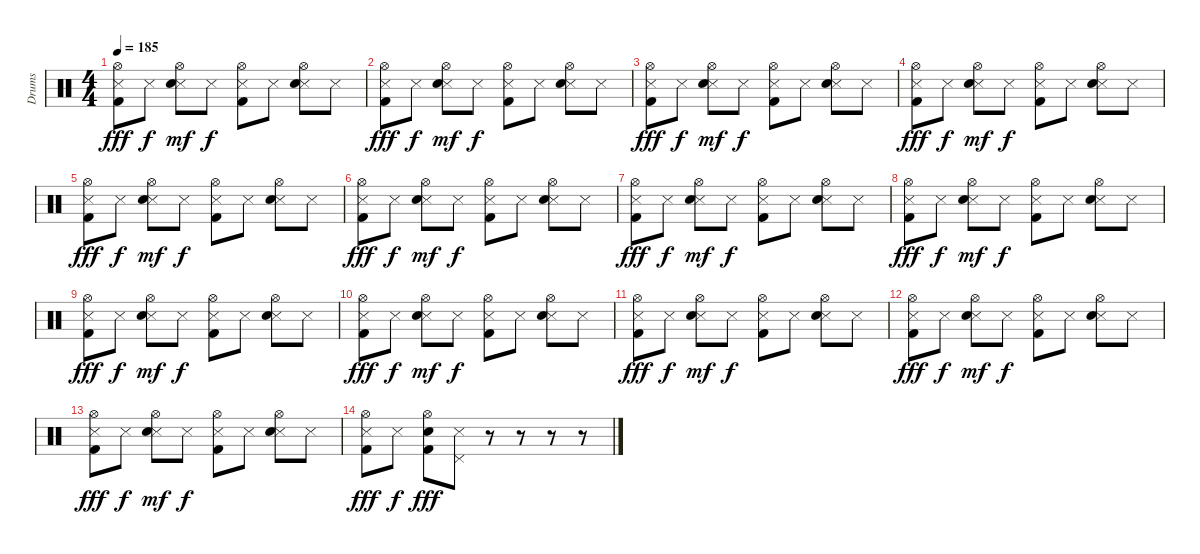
\track ("Drums" "Drums") {instrument percussion}
\staff {score}
\articulation defaults
\ts (4 4)
\tempo 185
\clef neutral
\ks c
("Hi-Hat (open)" "Metronome (hit)" "Kick (hit) 2").8{dy fff} "Metronome (hit)".8{dy f} ("Hi-Hat (open)" "Metronome (hit)" "Snare (hit) 2").8{dy mf} "Metronome (hit)".8{dy f} ("Hi-Hat (open)" "Metronome (hit)" "Kick (hit) 2").8 "Metronome (hit)".8 ("Hi-Hat (open)" "Metronome (hit)" "Snare (hit) 2").8 "Metronome (hit)".8 |
("Hi-Hat (open)" "Metronome (hit)" "Kick (hit) 2").8{dy fff} "Metronome (hit)".8{dy f} ("Hi-Hat (open)" "Metronome (hit)" "Snare (hit) 2").8{dy mf} "Metronome (hit)".8{dy f} ("Hi-Hat (open)" "Metronome (hit)" "Kick (hit) 2").8 "Metronome (hit)".8 ("Hi-Hat (open)" "Metronome (hit)" "Snare (hit) 2").8 "Metronome (hit)".8 |
("Hi-Hat (open)" "Metronome (hit)" "Kick (hit) 2").8{dy fff} "Metronome (hit)".8{dy f} ("Hi-Hat (open)" "Metronome (hit)" "Snare (hit) 2").8{dy mf} "Metronome (hit)".8{dy f} ("Hi-Hat (open)" "Metronome (hit)" "Kick (hit) 2").8 "Metronome (hit)".8 ("Hi-Hat (open)" "Metronome (hit)" "Snare (hit) 2").8 "Metronome (hit)".8 |
("Hi-Hat (open)" "Metronome (hit)" "Kick (hit) 2").8{dy fff} "Metronome (hit)".8{dy f} ("Hi-Hat (open)" "Metronome (hit)" "Snare (hit) 2").8{dy mf} "Metronome (hit)".8{dy f} ("Hi-Hat (open)" "Metronome (hit)" "Kick (hit) 2").8 "Metronome (hit)".8 ("Hi-Hat (open)" "Metronome (hit)" "Snare (hit) 2").8 "Metronome (hit)".8 |
("Hi-Hat (open)" "Metronome (hit)" "Kick (hit) 2").8{dy fff} "Metronome (hit)".8{dy f} ("Hi-Hat (open)" "Metronome (hit)" "Snare (hit) 2").8{dy mf} "Metronome (hit)".8{dy f} ("Hi-Hat (open)" "Metronome (hit)" "Kick (hit) 2").8 "Metronome (hit)".8 ("Hi-Hat (open)" "Metronome (hit)" "Snare (hit) 2").8 "Metronome (hit)".8 |
("Hi-Hat (open)" "Metronome (hit)" "Kick (hit) 2").8{dy fff} "Metronome (hit)".8{dy f} ("Hi-Hat (open)" "Metronome (hit)" "Snare (hit) 2").8{dy mf} "Metronome (hit)".8{dy f} ("Hi-Hat (open)" "Metronome (hit)" "Kick (hit) 2").8 "Metronome (hit)".8 ("Hi-Hat (open)" "Metronome (hit)" "Snare (hit) 2").8 "Metronome (hit)".8 |
("Hi-Hat (open)" "Metronome (hit)" "Kick (hit) 2").8{dy fff} "Metronome (hit)".8{dy f} ("Hi-Hat (open)" "Metronome (hit)" "Snare (hit) 2").8{dy mf} "Metronome (hit)".8{dy f} ("Hi-Hat (open)" "Metronome (hit)" "Kick (hit) 2").8 "Metronome (hit)".8 ("Hi-Hat (open)" "Metronome (hit)" "Snare (hit) 2").8 "Metronome (hit)".8 |
("Hi-Hat (open)" "Metronome (hit)" "Kick (hit) 2").8{dy fff} "Metronome (hit)".8{dy f} ("Hi-Hat (open)" "Metronome (hit)" "Snare (hit) 2").8{dy mf} "Metronome (hit)".8{dy f} ("Hi-Hat (open)" "Metronome (hit)" "Kick (hit) 2").8 "Metronome (hit)".8 ("Hi-Hat (open)" "Metronome (hit)" "Snare (hit) 2").8 "Metronome (hit)".8 |
("Hi-Hat (open)" "Metronome (hit)" "Kick (hit) 2").8{dy fff} "Metronome (hit)".8{dy f} ("Hi-Hat (open)" "Metronome (hit)" "Snare (hit) 2").8{dy mf} "Metronome (hit)".8{dy f} ("Hi-Hat (open)" "Metronome (hit)" "Kick (hit) 2").8 "Metronome (hit)".8 ("Hi-Hat (open)" "Metronome (hit)" "Snare (hit) 2").8 "Metronome (hit)".8 |
("Hi-Hat (open)" "Metronome (hit)" "Kick (hit) 2").8{dy fff} "Metronome (hit)".8{dy f} ("Hi-Hat (open)" "Metronome (hit)" "Snare (hit) 2").8{dy mf} "Metronome (hit)".8{dy f} ("Hi-Hat (open)" "Metronome (hit)" "Kick (hit) 2").8 "Metronome (hit)".8 ("Hi-Hat (open)" "Metronome (hit)" "Snare (hit) 2").8 "Metronome (hit)".8 |
("Hi-Hat (open)" "Metronome (hit)" "Kick (hit) 2").8{dy fff} "Metronome (hit)".8{dy f} ("Hi-Hat (open)" "Metronome (hit)" "Snare (hit) 2").8{dy mf} "Metronome (hit)".8{dy f} ("Hi-Hat (open)" "Metronome (hit)" "Kick (hit) 2").8 "Metronome (hit)".8 ("Hi-Hat (open)" "Metronome (hit)" "Snare (hit) 2").8 "Metronome (hit)".8 |
("Hi-Hat (open)" "Metronome (hit)" "Kick (hit) 2").8{dy fff} "Metronome (hit)".8{dy f} ("Hi-Hat (open)" "Metronome (hit)" "Snare (hit) 2").8{dy mf} "Metronome (hit)".8{dy f} ("Hi-Hat (open)" "Metronome (hit)" "Kick (hit) 2").8 "Metronome (hit)".8 ("Hi-Hat (open)" "Metronome (hit)" "Snare (hit) 2").8 "Metronome (hit)".8 |
("Hi-Hat (open)" "Metronome (hit)" "Kick (hit) 2").8{dy fff} "Metronome (hit)".8{dy f} ("Hi-Hat (open)" "Metronome (hit)" "Snare (hit) 2").8{dy mf} "Metronome (hit)".8{dy f} ("Hi-Hat (open)" "Metronome (hit)" "Kick (hit) 2").8 "Metronome (hit)".8 ("Hi-Hat (open)" "Metronome (hit)" "Snare (hit) 2").8 "Metronome (hit)".8 |
("Hi-Hat (open)" "Metronome (hit)" "Kick (hit) 2").8{dy fff} "Metronome (hit)".8{dy f} ("Hi-Hat (open)" "Snare (hit) 2" "Kick (hit) 2").8{dy fff} ("Pedal Hi-Hat (hit)" "Metronome (hit)").8 r.8 r.8 r.8 r.8
